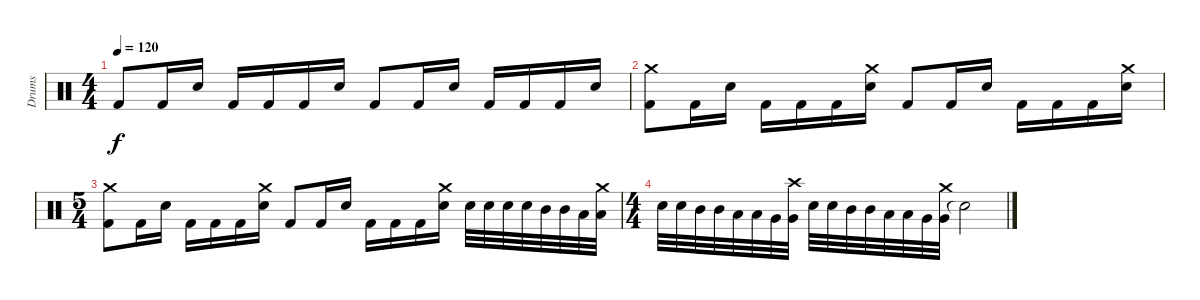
\track ("Drums" "Drums") {instrument percussion}
\staff {score}
\articulation defaults
\ts (4 4)
\tempo 120
\clef neutral
\ks c "Kick (hit) 2".8{dy f} "Kick (hit) 2".16 "Electric Snare (hit)".16 "Kick (hit) 2".16 "Kick (hit) 2".16 "Kick (hit) 2".16 "Electric Snare (hit)".16 "Kick (hit) 2".8 "Kick (hit) 2".16 "Electric Snare (hit)".16 "Kick (hit) 2".16 "Kick (hit) 2".16 "Kick (hit) 2".16 "Electric Snare (hit)".16
|
("Kick (hit) 2" "Crash medium (hit)").8 "Kick (hit) 2".16 "Electric Snare (hit)".16 "Kick (hit) 2".16 "Kick (hit) 2".16 "Kick (hit) 2".16 ("Electric Snare (hit)" "Crash medium (hit)").16 "Kick (hit) 2".8 "Kick (hit) 2".16 "Electric Snare (hit)".16 "Kick (hit) 2".16 "Kick (hit) 2".16 "Kick (hit) 2".16 ("Electric Snare (hit)" "Crash medium (hit)").16 |
\ts (5 4)
("Kick (hit) 2" "Crash medium (hit)").8 "Kick (hit) 2".16 "Electric Snare (hit)".16 "Kick (hit) 2".16 "Kick (hit) 2".16 "Kick (hit) 2".16 ("Electric Snare (hit)" "Crash medium (hit)").16 "Kick (hit) 2".8 "Kick (hit) 2".16 "Electric Snare (hit)".16 "Kick (hit) 2".16 "Kick (hit) 2".16 "Kick (hit) 2".16 ("Electric Snare (hit)" "Crash medium (hit)").16 "Electric Snare (hit)".32 "Electric Snare (hit)".32 "Snare (hit) 2".32 "Snare (hit) 2".32 "Mid Tom (hit)".32 "Mid Tom (hit)".32 "Low Tom (hit)".32 ("Low Tom (hit)" "Crash medium (hit)").32 |
\ts (4 4)
"Snare (hit) 2".32 "Snare (hit) 2".32 "Mid Tom (hit)".32 "Mid Tom (hit)".32 "Low Tom (hit)".32 "Low Tom (hit)".32 "Very Low Tom (hit)".32 ("Very Low Tom (hit)" "Crash high (hit)").32 "Snare (hit) 2".32 "Snare (hit) 2".32 "Mid Tom (hit)".32 "Mid Tom (hit)".32 "Low Tom (hit)".32 "Low Tom (hit)".32 "Very Low Tom (hit)".32 ("Very Low Tom (hit)" "Crash medium (hit)").32 "Snare (hit)"{t}.2
